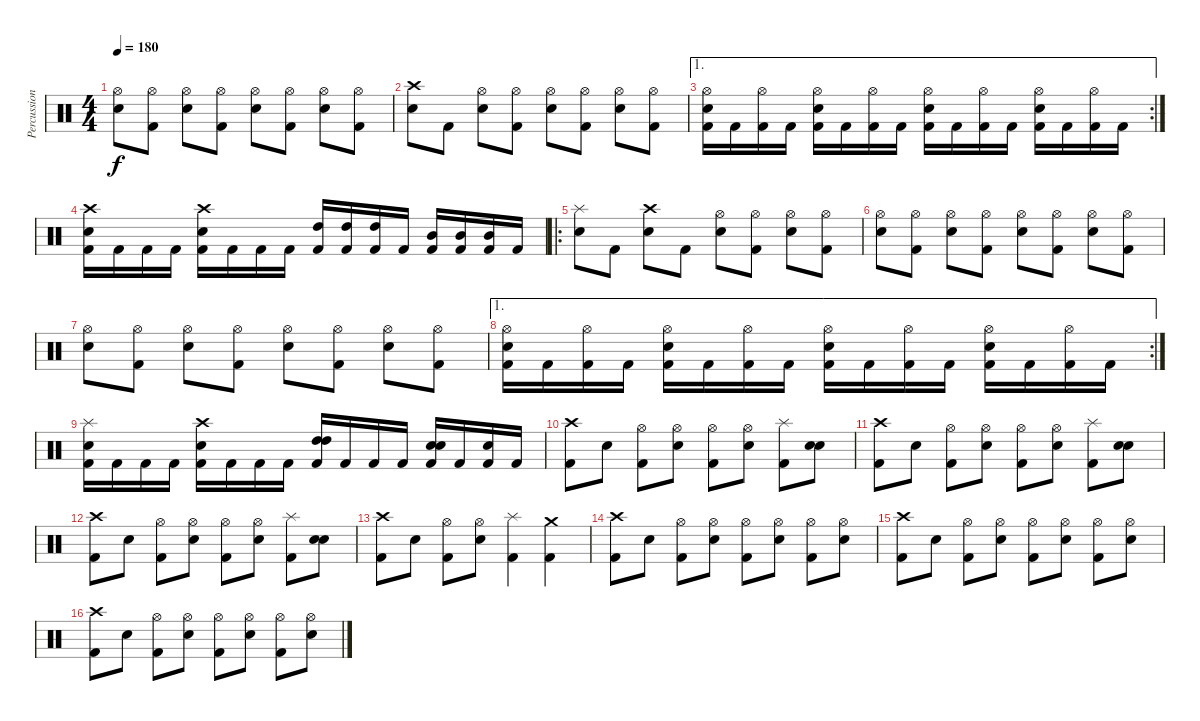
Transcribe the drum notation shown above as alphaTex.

\track ("Percussion" "Percussion") {instrument percussion}
\staff {score}
\articulation defaults
\ts (4 4)
\tempo 180
\clef neutral
\ks c
("Hi-Hat (open)" "Snare (hit) 2").8{dy f} ("Hi-Hat (open)" "Kick (hit) 2").8 ("Hi-Hat (open)" "Snare (hit) 2").8 ("Hi-Hat (open)" "Kick (hit) 2").8 ("Hi-Hat (open)" "Snare (hit) 2").8 ("Hi-Hat (open)" "Kick (hit) 2").8 ("Hi-Hat (open)" "Snare (hit) 2").8 ("Hi-Hat (open)" "Kick (hit) 2").8 |
("Crash high (hit)" "Snare (hit) 2").8 "Kick (hit) 2".8 ("Hi-Hat (open)" "Snare (hit) 2").8 ("Hi-Hat (open)" "Kick (hit) 2").8 ("Hi-Hat (open)" "Snare (hit) 2").8 ("Hi-Hat (open)" "Kick (hit) 2").8 ("Hi-Hat (open)" "Snare (hit) 2").8 ("Hi-Hat (open)" "Kick (hit) 2").8 |
\ae 1
\rc 2
("Hi-Hat (open)" "Snare (hit) 2" "Kick (hit) 2").16 "Kick (hit) 2".16 ("Hi-Hat (open)" "Kick (hit) 2").16 "Kick (hit) 2".16 ("Hi-Hat (open)" "Snare (hit) 2" "Kick (hit) 2").16 "Kick (hit) 2".16 ("Hi-Hat (open)" "Kick (hit) 2").16 "Kick (hit) 2".16 ("Hi-Hat (open)" "Snare (hit) 2" "Kick (hit) 2").16 "Kick (hit) 2".16 ("Hi-Hat (open)" "Kick (hit) 2").16 "Kick (hit) 2".16 ("Hi-Hat (open)" "Snare (hit) 2" "Kick (hit) 2").16 "Kick (hit) 2".16 ("Hi-Hat (open)" "Kick (hit) 2").16 "Kick (hit) 2".16 |
("Crash high (hit)" "Snare (hit) 2" "Kick (hit) 2").16 "Kick (hit) 2".16 "Kick (hit) 2".16 "Kick (hit) 2".16 ("Crash high (hit)" "Snare (hit) 2" "Kick (hit) 2").16 "Kick (hit) 2".16 "Kick (hit) 2".16 "Kick (hit) 2".16 ("High Tom (hit)" "Kick (hit) 2").16 ("High Tom (hit)" "Kick (hit) 2").16 ("High Tom (hit)" "Kick (hit) 2").16 "Kick (hit) 2".16 ("Mid Tom (hit)" "Kick (hit) 2").16 ("Mid Tom (hit)" "Kick (hit) 2").16 ("Mid Tom (hit)" "Kick (hit) 2").16 "Kick (hit) 2".16 |
\ro
("Splash (hit)" "Snare (hit) 2").8 "Kick (hit) 2".8 ("Crash high (hit)" "Snare (hit) 2").8 "Kick (hit) 2".8 ("Hi-Hat (open)" "Snare (hit) 2").8 ("Hi-Hat (open)" "Kick (hit) 2").8 ("Hi-Hat (open)" "Snare (hit) 2").8 ("Hi-Hat (open)" "Kick (hit) 2").8 |
("Hi-Hat (open)" "Snare (hit) 2").8 ("Hi-Hat (open)" "Kick (hit) 2").8 ("Hi-Hat (open)" "Snare (hit) 2").8 ("Hi-Hat (open)" "Kick (hit) 2").8 ("Hi-Hat (open)" "Snare (hit) 2").8 ("Hi-Hat (open)" "Kick (hit) 2").8 ("Hi-Hat (open)" "Snare (hit) 2").8 ("Hi-Hat (open)" "Kick (hit) 2").8 |
("Hi-Hat (open)" "Snare (hit) 2").8 ("Hi-Hat (open)" "Kick (hit) 2").8 ("Hi-Hat (open)" "Snare (hit) 2").8 ("Hi-Hat (open)" "Kick (hit) 2").8 ("Hi-Hat (open)" "Snare (hit) 2").8 ("Hi-Hat (open)" "Kick (hit) 2").8 ("Hi-Hat (open)" "Snare (hit) 2").8 ("Hi-Hat (open)" "Kick (hit) 2").8 |
\ae 1
\rc 2
("Hi-Hat (open)" "Snare (hit) 2" "Kick (hit) 2").16 "Kick (hit) 2".16 ("Hi-Hat (open)" "Kick (hit) 2").16 "Kick (hit) 2".16 ("Hi-Hat (open)" "Snare (hit) 2" "Kick (hit) 2").16 "Kick (hit) 2".16 ("Hi-Hat (open)" "Kick (hit) 2").16 "Kick (hit) 2".16 ("Hi-Hat (open)" "Snare (hit) 2" "Kick (hit) 2").16 "Kick (hit) 2".16 ("Hi-Hat (open)" "Kick (hit) 2").16 "Kick (hit) 2".16 ("Hi-Hat (open)" "Snare (hit) 2" "Kick (hit) 2").16 "Kick (hit) 2".16 ("Hi-Hat (open)" "Kick (hit) 2").16 "Kick (hit) 2".16 |
("Splash (hit)" "Snare (hit) 2" "Kick (hit) 2").16 "Kick (hit) 2".16 "Kick (hit) 2".16 "Kick (hit) 2".16 ("Crash high (hit)" "Snare (hit) 2" "Kick (hit) 2").16 "Kick (hit) 2".16 "Kick (hit) 2".16 "Kick (hit) 2".16 ("High Tom (hit)" "High Tom (hit)" "Kick (hit) 2").16 "Kick (hit) 2".16 "Kick (hit) 2".16 "Kick (hit) 2".16 ("Snare (hit) 2" "Snare (hit) 2" "Kick (hit) 2").16 "Kick (hit) 2".16 ("Snare (hit) 2" "Kick (hit) 2").16 "Kick (hit) 2".16 |
("Crash high (hit)" "Kick (hit) 2").8 "Snare (hit) 2".8 ("Hi-Hat (open)" "Kick (hit) 2").8 ("Hi-Hat (open)" "Snare (hit) 2").8 ("Hi-Hat (open)" "Kick (hit) 2").8 ("Hi-Hat (open)" "Snare (hit) 2").8 ("Splash (hit)" "Kick (hit) 2").8 ("Snare (hit)" "Snare (hit) 2").8 |
("Crash high (hit)" "Kick (hit) 2").8 "Snare (hit) 2".8 ("Hi-Hat (open)" "Kick (hit) 2").8 ("Hi-Hat (open)" "Snare (hit) 2").8 ("Hi-Hat (open)" "Kick (hit) 2").8 ("Hi-Hat (open)" "Snare (hit) 2").8 ("Splash (hit)" "Kick (hit) 2").8 ("Snare (hit)" "Snare (hit) 2").8 |
("Crash high (hit)" "Kick (hit) 2").8 "Snare (hit) 2".8 ("Hi-Hat (open)" "Kick (hit) 2").8 ("Hi-Hat (open)" "Snare (hit) 2").8 ("Hi-Hat (open)" "Kick (hit) 2").8 ("Hi-Hat (open)" "Snare (hit) 2").8 ("Splash (hit)" "Kick (hit) 2").8 ("Snare (hit)" "Snare (hit) 2").8 |
("Crash high (hit)" "Kick (hit) 2").8 "Snare (hit) 2".8 ("Hi-Hat (open)" "Kick (hit) 2").8 ("Hi-Hat (open)" "Snare (hit) 2").8 ("Splash (hit)" "Kick (hit) 2").4 ("Crash medium (hit)" "Kick (hit) 2").4 |
("Crash high (hit)" "Kick (hit) 2").8 "Snare (hit) 2".8 ("Hi-Hat (open)" "Kick (hit) 2").8 ("Hi-Hat (open)" "Snare (hit) 2").8 ("Hi-Hat (open)" "Kick (hit) 2").8 ("Hi-Hat (open)" "Snare (hit) 2").8 ("Hi-Hat (open)" "Kick (hit) 2").8 ("Hi-Hat (open)" "Snare (hit) 2").8 |
("Crash high (hit)" "Kick (hit) 2").8 "Snare (hit) 2".8 ("Hi-Hat (open)" "Kick (hit) 2").8 ("Hi-Hat (open)" "Snare (hit) 2").8 ("Hi-Hat (open)" "Kick (hit) 2").8 ("Hi-Hat (open)" "Snare (hit) 2").8 ("Hi-Hat (open)" "Kick (hit) 2").8 ("Hi-Hat (open)" "Snare (hit) 2").8 |
("Crash high (hit)" "Kick (hit) 2").8 "Snare (hit) 2".8 ("Hi-Hat (open)" "Kick (hit) 2").8 ("Hi-Hat (open)" "Snare (hit) 2").8 ("Hi-Hat (open)" "Kick (hit) 2").8 ("Hi-Hat (open)" "Snare (hit) 2").8 ("Hi-Hat (open)" "Kick (hit) 2").8 ("Hi-Hat (open)" "Snare (hit) 2").8
